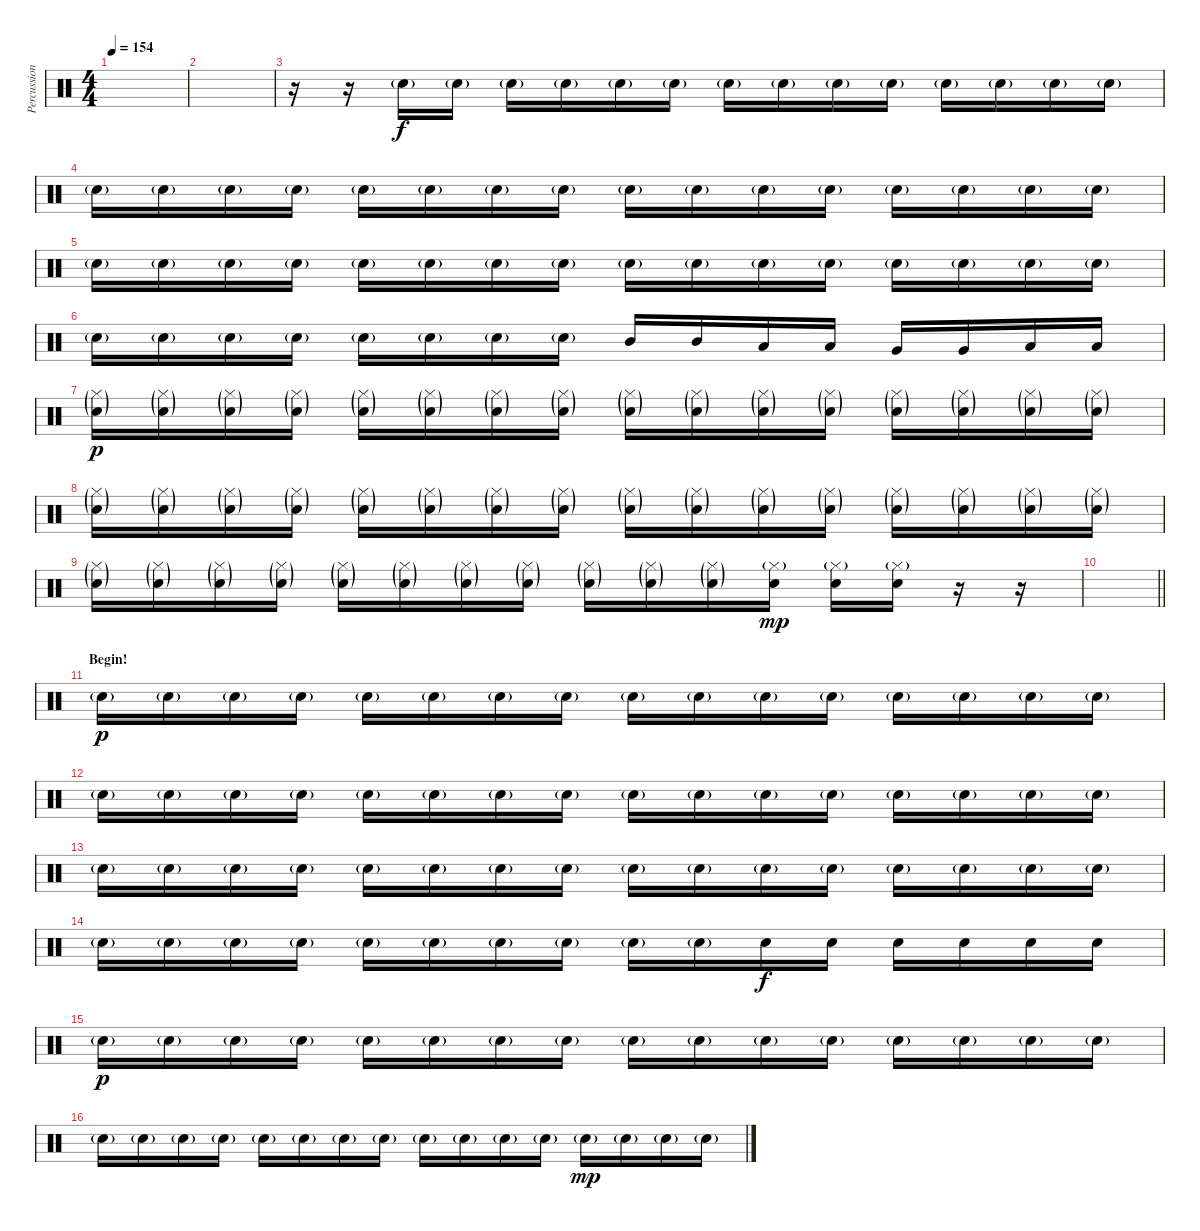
\track ("Percussion" "Percussion") {instrument percussion}
\staff {score}
\articulation defaults
\ts (4 4)
\tempo 154
\clef neutral
\ks c
|
|
r.16 r.16 "Snare (hit) 2"{g}.16 "Snare (hit) 2"{g}.16 "Snare (hit) 2"{g}.16 "Snare (hit) 2"{g}.16 "Snare (hit) 2"{g}.16 "Snare (hit) 2"{g}.16 "Snare (hit) 2"{g}.16 "Snare (hit) 2"{g}.16 "Snare (hit) 2"{g}.16 "Snare (hit) 2"{g}.16 "Snare (hit) 2"{g}.16 "Snare (hit) 2"{g}.16 "Snare (hit) 2"{g}.16 "Snare (hit) 2"{g}.16 |
"Snare (hit) 2"{g}.16 "Snare (hit) 2"{g}.16 "Snare (hit) 2"{g}.16 "Snare (hit) 2"{g}.16 "Snare (hit) 2"{g}.16 "Snare (hit) 2"{g}.16 "Snare (hit) 2"{g}.16 "Snare (hit) 2"{g}.16 "Snare (hit) 2"{g}.16 "Snare (hit) 2"{g}.16 "Snare (hit) 2"{g}.16 "Snare (hit) 2"{g}.16 "Snare (hit) 2"{g}.16 "Snare (hit) 2"{g}.16 "Snare (hit) 2"{g}.16 "Snare (hit) 2"{g}.16 |
"Snare (hit) 2"{g}.16 "Snare (hit) 2"{g}.16 "Snare (hit) 2"{g}.16 "Snare (hit) 2"{g}.16 "Snare (hit) 2"{g}.16 "Snare (hit) 2"{g}.16 "Snare (hit) 2"{g}.16 "Snare (hit) 2"{g}.16 "Snare (hit) 2"{g}.16 "Snare (hit) 2"{g}.16 "Snare (hit) 2"{g}.16 "Snare (hit) 2"{g}.16 "Snare (hit) 2"{g}.16 "Snare (hit) 2"{g}.16 "Snare (hit) 2"{g}.16 "Snare (hit) 2"{g}.16 |
"Snare (hit) 2"{g}.16 "Snare (hit) 2"{g}.16 "Snare (hit) 2"{g}.16 "Snare (hit) 2"{g}.16 "Snare (hit) 2"{g}.16 "Snare (hit) 2"{g}.16 "Snare (hit) 2"{g}.16 "Snare (hit) 2"{g}.16 "Mid Tom (hit)".16{dy f} "Mid Tom (hit)".16 "Low Tom (hit)".16 "Low Tom (hit)".16 "Very Low Tom (hit)".16 "Very Low Tom (hit)".16 "Low Floor Tom (hit)".16 "Low Floor Tom (hit)".16 |
("Hi-Hat (closed)"{g} "Snare (hit) 2"{g}).16{dy p} ("Hi-Hat (closed)"{g} "Snare (hit) 2"{g}).16 ("Hi-Hat (closed)"{g} "Snare (hit) 2"{g}).16 ("Hi-Hat (closed)"{g} "Snare (hit) 2"{g}).16 ("Hi-Hat (closed)"{g} "Snare (hit) 2"{g}).16 ("Hi-Hat (closed)"{g} "Snare (hit) 2"{g}).16 ("Hi-Hat (closed)"{g} "Snare (hit) 2"{g}).16 ("Hi-Hat (closed)"{g} "Snare (hit) 2"{g}).16 ("Hi-Hat (closed)"{g} "Snare (hit) 2"{g}).16 ("Hi-Hat (closed)"{g} "Snare (hit) 2"{g}).16 ("Hi-Hat (closed)"{g} "Snare (hit) 2"{g}).16 ("Hi-Hat (closed)"{g} "Snare (hit) 2"{g}).16 ("Hi-Hat (closed)"{g} "Snare (hit) 2"{g}).16 ("Hi-Hat (closed)"{g} "Snare (hit) 2"{g}).16 ("Hi-Hat (closed)"{g} "Snare (hit) 2"{g}).16 ("Hi-Hat (closed)"{g} "Snare (hit) 2"{g}).16 |
("Hi-Hat (closed)"{g} "Snare (hit) 2"{g}).16 ("Hi-Hat (closed)"{g} "Snare (hit) 2"{g}).16 ("Hi-Hat (closed)"{g} "Snare (hit) 2"{g}).16 ("Hi-Hat (closed)"{g} "Snare (hit) 2"{g}).16 ("Hi-Hat (closed)"{g} "Snare (hit) 2"{g}).16 ("Hi-Hat (closed)"{g} "Snare (hit) 2"{g}).16 ("Hi-Hat (closed)"{g} "Snare (hit) 2"{g}).16 ("Hi-Hat (closed)"{g} "Snare (hit) 2"{g}).16 ("Hi-Hat (closed)"{g} "Snare (hit) 2"{g}).16 ("Hi-Hat (closed)"{g} "Snare (hit) 2"{g}).16 ("Hi-Hat (closed)"{g} "Snare (hit) 2"{g}).16 ("Hi-Hat (closed)"{g} "Snare (hit) 2"{g}).16 ("Hi-Hat (closed)"{g} "Snare (hit) 2"{g}).16 ("Hi-Hat (closed)"{g} "Snare (hit) 2"{g}).16 ("Hi-Hat (closed)"{g} "Snare (hit) 2"{g}).16 ("Hi-Hat (closed)"{g} "Snare (hit) 2"{g}).16 |
("Hi-Hat (closed)"{g} "Snare (hit) 2"{g}).16 ("Hi-Hat (closed)"{g} "Snare (hit) 2"{g}).16 ("Hi-Hat (closed)"{g} "Snare (hit) 2"{g}).16 ("Hi-Hat (closed)"{g} "Snare (hit) 2"{g}).16 ("Hi-Hat (closed)"{g} "Snare (hit) 2"{g}).16 ("Hi-Hat (closed)"{g} "Snare (hit) 2"{g}).16 ("Hi-Hat (closed)"{g} "Snare (hit) 2"{g}).16 ("Hi-Hat (closed)"{g} "Snare (hit) 2"{g}).16 ("Hi-Hat (closed)"{g} "Snare (hit) 2"{g}).16 ("Hi-Hat (closed)"{g} "Snare (hit) 2"{g}).16 ("Hi-Hat (closed)"{g} "Snare (hit) 2"{g}).16 ("Hi-Hat (closed)"{g} "Snare (hit) 2").16{dy mp} ("Hi-Hat (closed)"{g} "Snare (hit) 2").16 ("Hi-Hat (closed)"{g} "Snare (hit) 2").16 r.16 r.16 |
\barLineRight lightlight
|
\section ("" "Begin!")
"Snare (hit) 2"{g}.16{dy p} "Snare (hit) 2"{g}.16 "Snare (hit) 2"{g}.16 "Snare (hit) 2"{g}.16 "Snare (hit) 2"{g}.16 "Snare (hit) 2"{g}.16 "Snare (hit) 2"{g}.16 "Snare (hit) 2"{g}.16 "Snare (hit) 2"{g}.16 "Snare (hit) 2"{g}.16 "Snare (hit) 2"{g}.16 "Snare (hit) 2"{g}.16 "Snare (hit) 2"{g}.16 "Snare (hit) 2"{g}.16 "Snare (hit) 2"{g}.16 "Snare (hit) 2"{g}.16 |
"Snare (hit) 2"{g}.16 "Snare (hit) 2"{g}.16 "Snare (hit) 2"{g}.16 "Snare (hit) 2"{g}.16 "Snare (hit) 2"{g}.16 "Snare (hit) 2"{g}.16 "Snare (hit) 2"{g}.16 "Snare (hit) 2"{g}.16 "Snare (hit) 2"{g}.16 "Snare (hit) 2"{g}.16 "Snare (hit) 2"{g}.16 "Snare (hit) 2"{g}.16 "Snare (hit) 2"{g}.16 "Snare (hit) 2"{g}.16 "Snare (hit) 2"{g}.16 "Snare (hit) 2"{g}.16 |
"Snare (hit) 2"{g}.16 "Snare (hit) 2"{g}.16 "Snare (hit) 2"{g}.16 "Snare (hit) 2"{g}.16 "Snare (hit) 2"{g}.16 "Snare (hit) 2"{g}.16 "Snare (hit) 2"{g}.16 "Snare (hit) 2"{g}.16 "Snare (hit) 2"{g}.16 "Snare (hit) 2"{g}.16 "Snare (hit) 2"{g}.16 "Snare (hit) 2"{g}.16 "Snare (hit) 2"{g}.16 "Snare (hit) 2"{g}.16 "Snare (hit) 2"{g}.16 "Snare (hit) 2"{g}.16 |
"Snare (hit) 2"{g}.16 "Snare (hit) 2"{g}.16 "Snare (hit) 2"{g}.16 "Snare (hit) 2"{g}.16 "Snare (hit) 2"{g}.16 "Snare (hit) 2"{g}.16 "Snare (hit) 2"{g}.16 "Snare (hit) 2"{g}.16 "Snare (hit) 2"{g}.16 "Snare (hit) 2"{g}.16 "Snare (hit) 2".16{dy f} "Snare (hit) 2".16 "Snare (hit) 2".16 "Snare (hit) 2".16 "Snare (hit) 2".16 "Snare (hit) 2".16 |
"Snare (hit) 2"{g}.16{dy p} "Snare (hit) 2"{g}.16 "Snare (hit) 2"{g}.16 "Snare (hit) 2"{g}.16 "Snare (hit) 2"{g}.16 "Snare (hit) 2"{g}.16 "Snare (hit) 2"{g}.16 "Snare (hit) 2"{g}.16 "Snare (hit) 2"{g}.16 "Snare (hit) 2"{g}.16 "Snare (hit) 2"{g}.16 "Snare (hit) 2"{g}.16 "Snare (hit) 2"{g}.16 "Snare (hit) 2"{g}.16 "Snare (hit) 2"{g}.16 "Snare (hit) 2"{g}.16 |
"Snare (hit) 2"{g}.16 "Snare (hit) 2"{g}.16 "Snare (hit) 2"{g}.16 "Snare (hit) 2"{g}.16 "Snare (hit) 2"{g}.16 "Snare (hit) 2"{g}.16 "Snare (hit) 2"{g}.16 "Snare (hit) 2"{g}.16 "Snare (hit) 2"{g}.16 "Snare (hit) 2"{g}.16 "Snare (hit) 2"{g}.16 "Snare (hit) 2"{g}.16 "Snare (hit) 2"{g}.16{dy mp} "Snare (hit) 2"{g}.16 "Snare (hit) 2"{g}.16 "Snare (hit) 2"{g}.16
